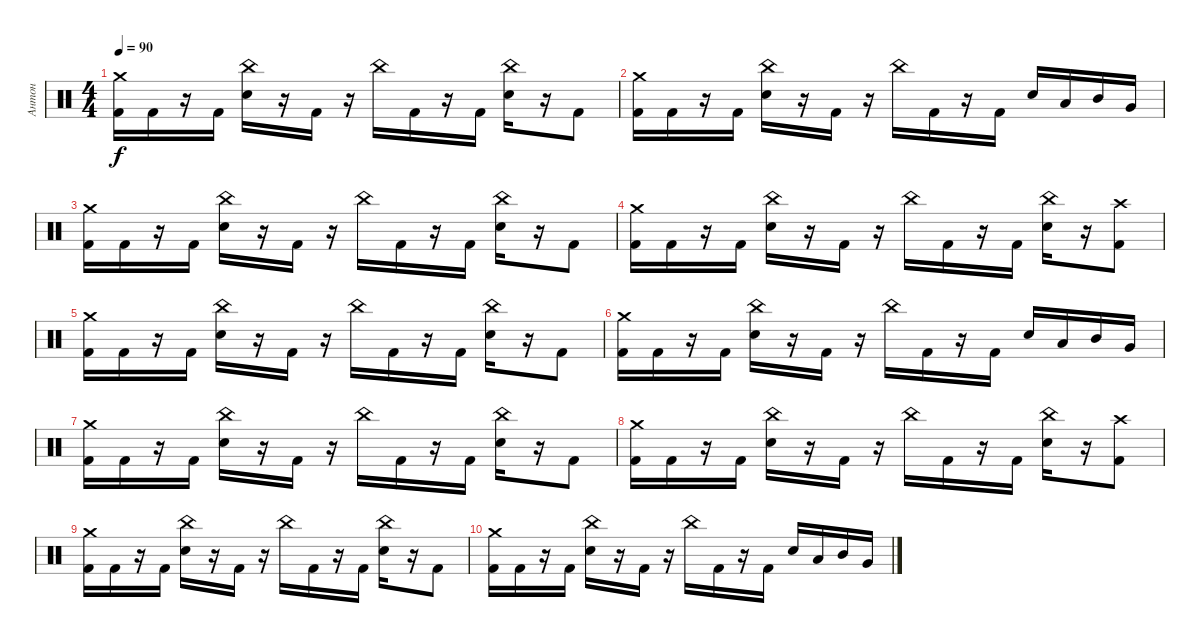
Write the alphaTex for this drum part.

\track ("Антон" "Антон") {instrument percussion}
\staff {score}
\articulation defaults
\ts (4 4)
\tempo 90
\clef neutral
\ks c
("Crash medium (hit)" "Kick (hit) 2").16{dy f} "Kick (hit) 2".16 r.16 "Kick (hit) 2".16 ("China (hit)" "Electric Snare (hit)").16 r.16 "Kick (hit) 2".16 r.16 "China (hit)".16 "Kick (hit) 2".16 r.16 "Kick (hit) 2".16 ("China (hit)" "Electric Snare (hit)").16 r.16 "Kick (hit) 2".8 |
("Crash medium (hit)" "Kick (hit) 2").16 "Kick (hit) 2".16 r.16 "Kick (hit) 2".16 ("China (hit)" "Electric Snare (hit)").16 r.16 "Kick (hit) 2".16 r.16 "China (hit)".16 "Kick (hit) 2".16 r.16 "Kick (hit) 2".16 "Electric Snare (hit)".16 "Low Tom (hit)".16 "Mid Tom (hit)".16 "Very Low Tom (hit)".16 |
("Crash medium (hit)" "Kick (hit) 2").16 "Kick (hit) 2".16 r.16 "Kick (hit) 2".16 ("China (hit)" "Electric Snare (hit)").16 r.16 "Kick (hit) 2".16 r.16 "China (hit)".16 "Kick (hit) 2".16 r.16 "Kick (hit) 2".16 ("China (hit)" "Electric Snare (hit)").16 r.16 "Kick (hit) 2".8 |
("Crash medium (hit)" "Kick (hit) 2").16 "Kick (hit) 2".16 r.16 "Kick (hit) 2".16 ("China (hit)" "Electric Snare (hit)").16 r.16 "Kick (hit) 2".16 r.16 "China (hit)".16 "Kick (hit) 2".16 r.16 "Kick (hit) 2".16 ("China (hit)" "Electric Snare (hit)").16 r.16 ("Crash high (hit)" "Kick (hit) 2").8 |
("Crash medium (hit)" "Kick (hit) 2").16 "Kick (hit) 2".16 r.16 "Kick (hit) 2".16 ("China (hit)" "Electric Snare (hit)").16 r.16 "Kick (hit) 2".16 r.16 "China (hit)".16 "Kick (hit) 2".16 r.16 "Kick (hit) 2".16 ("China (hit)" "Electric Snare (hit)").16 r.16 "Kick (hit) 2".8 |
("Crash medium (hit)" "Kick (hit) 2").16 "Kick (hit) 2".16 r.16 "Kick (hit) 2".16 ("China (hit)" "Electric Snare (hit)").16 r.16 "Kick (hit) 2".16 r.16 "China (hit)".16 "Kick (hit) 2".16 r.16 "Kick (hit) 2".16 "Electric Snare (hit)".16 "Low Tom (hit)".16 "Mid Tom (hit)".16 "Very Low Tom (hit)".16 |
("Crash medium (hit)" "Kick (hit) 2").16 "Kick (hit) 2".16 r.16 "Kick (hit) 2".16 ("China (hit)" "Electric Snare (hit)").16 r.16 "Kick (hit) 2".16 r.16 "China (hit)".16 "Kick (hit) 2".16 r.16 "Kick (hit) 2".16 ("China (hit)" "Electric Snare (hit)").16 r.16 "Kick (hit) 2".8 |
("Crash medium (hit)" "Kick (hit) 2").16 "Kick (hit) 2".16 r.16 "Kick (hit) 2".16 ("China (hit)" "Electric Snare (hit)").16 r.16 "Kick (hit) 2".16 r.16 "China (hit)".16 "Kick (hit) 2".16 r.16 "Kick (hit) 2".16 ("China (hit)" "Electric Snare (hit)").16 r.16 ("Crash high (hit)" "Kick (hit) 2").8 |
("Crash medium (hit)" "Kick (hit) 2").16 "Kick (hit) 2".16 r.16 "Kick (hit) 2".16 ("China (hit)" "Electric Snare (hit)").16 r.16 "Kick (hit) 2".16 r.16 "China (hit)".16 "Kick (hit) 2".16 r.16 "Kick (hit) 2".16 ("China (hit)" "Electric Snare (hit)").16 r.16 "Kick (hit) 2".8 |
("Crash medium (hit)" "Kick (hit) 2").16 "Kick (hit) 2".16 r.16 "Kick (hit) 2".16 ("China (hit)" "Electric Snare (hit)").16 r.16 "Kick (hit) 2".16 r.16 "China (hit)".16 "Kick (hit) 2".16 r.16 "Kick (hit) 2".16 "Electric Snare (hit)".16 "Low Tom (hit)".16 "Mid Tom (hit)".16 "Very Low Tom (hit)".16
